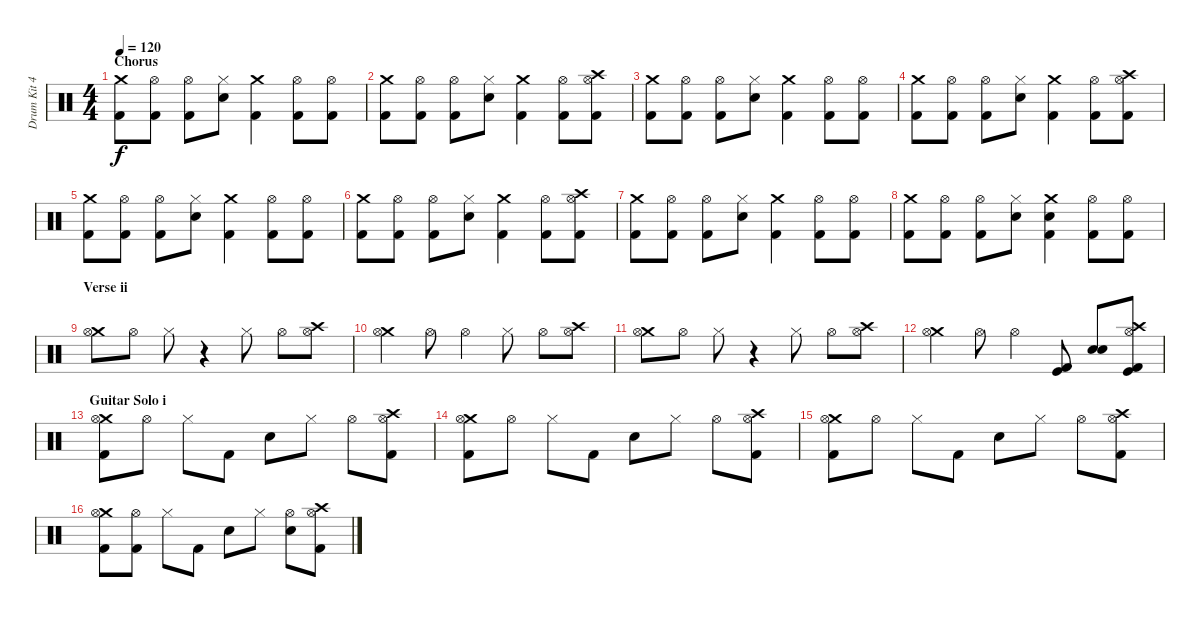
\track ("Drum Kit 42" "Drum Kit 4") {instrument percussion}
\staff {score}
\articulation defaults
\ts (4 4)
\section ("" "Chorus")
\tempo 120
\clef neutral
\ks c
("Crash medium (hit)" "Kick (hit) 2").8{dy f} ("Hi-Hat (open)" "Kick (hit) 2").8 ("Hi-Hat (open)" "Kick (hit) 2").8 ("Hi-Hat (closed)" "Snare (hit) 2").8 ("Crash medium (hit)" "Kick (hit) 2").4 ("Hi-Hat (open)" "Kick (hit) 2").8 ("Hi-Hat (open)" "Kick (hit) 2").8 |
("Crash medium (hit)" "Kick (hit) 2").8 ("Hi-Hat (open)" "Kick (hit) 2").8 ("Hi-Hat (open)" "Kick (hit) 2").8 ("Hi-Hat (closed)" "Snare (hit) 2").8 ("Crash medium (hit)" "Kick (hit) 2").4 ("Hi-Hat (open)" "Kick (hit) 2").8 ("Crash high (hit)" "Hi-Hat (open)" "Kick (hit) 2").8 |
("Crash medium (hit)" "Kick (hit) 2").8 ("Hi-Hat (open)" "Kick (hit) 2").8 ("Hi-Hat (open)" "Kick (hit) 2").8 ("Hi-Hat (closed)" "Snare (hit) 2").8 ("Crash medium (hit)" "Kick (hit) 2").4 ("Hi-Hat (open)" "Kick (hit) 2").8 ("Hi-Hat (open)" "Kick (hit) 2").8 |
("Crash medium (hit)" "Kick (hit) 2").8 ("Hi-Hat (open)" "Kick (hit) 2").8 ("Hi-Hat (open)" "Kick (hit) 2").8 ("Hi-Hat (closed)" "Snare (hit) 2").8 ("Crash medium (hit)" "Kick (hit) 2").4 ("Hi-Hat (open)" "Kick (hit) 2").8 ("Crash high (hit)" "Hi-Hat (open)" "Kick (hit) 2").8 |
("Crash medium (hit)" "Kick (hit) 2").8 ("Hi-Hat (open)" "Kick (hit) 2").8 ("Hi-Hat (open)" "Kick (hit) 2").8 ("Hi-Hat (closed)" "Snare (hit) 2").8 ("Crash medium (hit)" "Kick (hit) 2").4 ("Hi-Hat (open)" "Kick (hit) 2").8 ("Hi-Hat (open)" "Kick (hit) 2").8 |
("Crash medium (hit)" "Kick (hit) 2").8 ("Hi-Hat (open)" "Kick (hit) 2").8 ("Hi-Hat (open)" "Kick (hit) 2").8 ("Hi-Hat (closed)" "Snare (hit) 2").8 ("Crash medium (hit)" "Kick (hit) 2").4 ("Hi-Hat (open)" "Kick (hit) 2").8 ("Crash high (hit)" "Hi-Hat (open)" "Kick (hit) 2").8 |
("Crash medium (hit)" "Kick (hit) 2").8 ("Hi-Hat (open)" "Kick (hit) 2").8 ("Hi-Hat (open)" "Kick (hit) 2").8 ("Hi-Hat (closed)" "Snare (hit) 2").8 ("Crash medium (hit)" "Kick (hit) 2").4 ("Hi-Hat (open)" "Kick (hit) 2").8 ("Hi-Hat (open)" "Kick (hit) 2").8 |
("Crash medium (hit)" "Kick (hit) 2").8 ("Hi-Hat (open)" "Kick (hit) 2").8 ("Hi-Hat (open)" "Kick (hit) 2").8 ("Hi-Hat (closed)" "Snare (hit) 2").8 ("Crash medium (hit)" "Snare (hit) 2" "Kick (hit) 2").4 ("Hi-Hat (open)" "Kick (hit) 2").8 ("Hi-Hat (open)" "Kick (hit) 2").8 |
\section ("" "Verse ii")
("Crash medium (hit)" "Hi-Hat (open)").8 "Hi-Hat (open)".8 "Hi-Hat (closed)".8 r.4 "Hi-Hat (closed)".8 "Hi-Hat (open)".8 ("Crash high (hit)" "Hi-Hat (open)").8 |
("Crash medium (hit)" "Hi-Hat (open)").4 "Hi-Hat (open)".8 "Hi-Hat (open)".4 "Hi-Hat (closed)".8 "Hi-Hat (open)".8 ("Crash high (hit)" "Hi-Hat (open)").8 |
("Crash medium (hit)" "Hi-Hat (open)").8 "Hi-Hat (open)".8 "Hi-Hat (closed)".8 r.4 "Hi-Hat (closed)".8 "Hi-Hat (open)".8 ("Crash high (hit)" "Hi-Hat (open)").8 |
("Crash medium (hit)" "Hi-Hat (open)").4 "Hi-Hat (open)".8 "Hi-Hat (open)".4 ("Kick (hit)" "Kick (hit) 2").8 ("Snare (hit) 2" "Snare (hit) 2").8 ("Crash high (hit)" "Hi-Hat (open)" "Kick (hit)" "Kick (hit) 2").8 |
\section ("" "Guitar Solo i")
("Crash medium (hit)" "Hi-Hat (open)" "Kick (hit) 2").8 "Hi-Hat (open)".8 "Hi-Hat (closed)".8 "Kick (hit) 2".8 "Snare (hit) 2".8 "Hi-Hat (closed)".8 "Hi-Hat (open)".8 ("Crash high (hit)" "Hi-Hat (open)" "Kick (hit) 2").8 |
("Crash medium (hit)" "Hi-Hat (open)" "Kick (hit) 2").8 "Hi-Hat (open)".8 "Hi-Hat (closed)".8 "Kick (hit) 2".8 "Snare (hit) 2".8 "Hi-Hat (closed)".8 "Hi-Hat (open)".8 ("Crash high (hit)" "Hi-Hat (open)" "Kick (hit) 2").8 |
("Crash medium (hit)" "Hi-Hat (open)" "Kick (hit) 2").8 "Hi-Hat (open)".8 "Hi-Hat (closed)".8 "Kick (hit) 2".8 "Snare (hit) 2".8 "Hi-Hat (closed)".8 "Hi-Hat (open)".8 ("Crash high (hit)" "Hi-Hat (open)" "Kick (hit) 2").8 |
("Crash medium (hit)" "Hi-Hat (open)" "Kick (hit) 2").8 ("Hi-Hat (open)" "Kick (hit) 2").8 "Hi-Hat (closed)".8 "Kick (hit) 2".8 "Snare (hit) 2".8 "Hi-Hat (closed)".8 ("Hi-Hat (open)" "Snare (hit) 2").8 ("Crash high (hit)" "Hi-Hat (open)" "Kick (hit) 2").8
